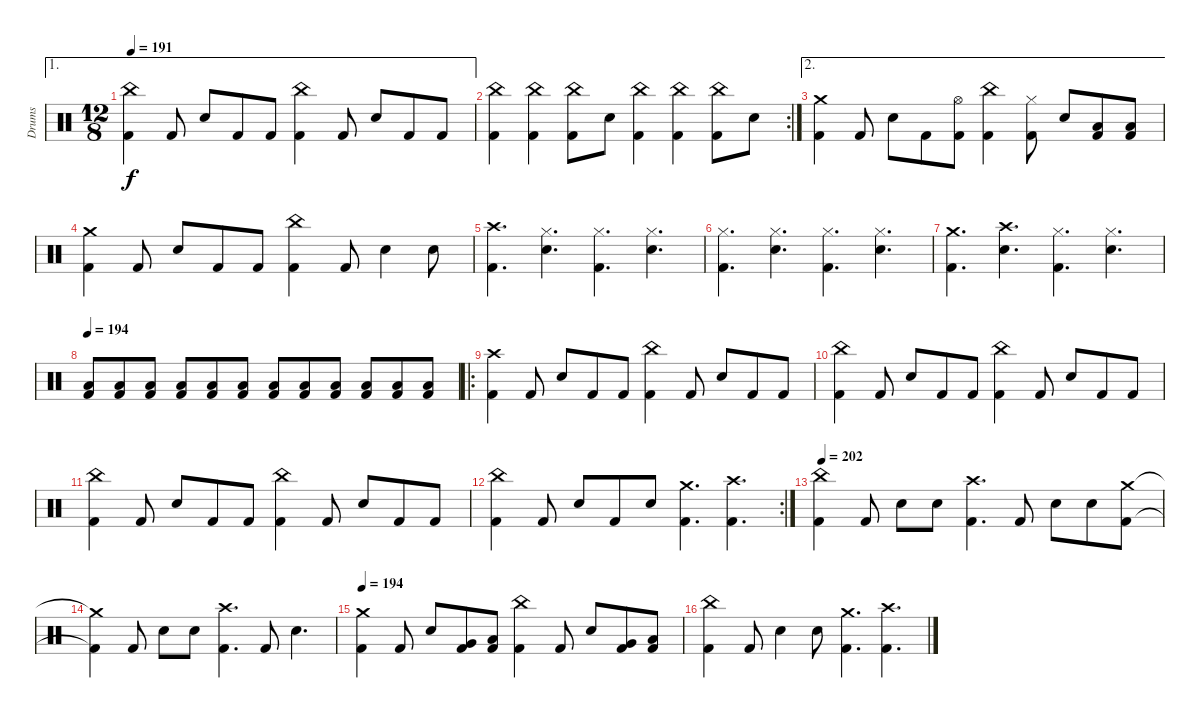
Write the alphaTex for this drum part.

\track ("Drums" "Drums") {instrument percussion}
\staff {score}
\articulation defaults
\ae 1
\ts (12 8)
\tempo 191
\clef neutral
\ks c
("China (hit)" "Kick (hit) 2").4{dy f} "Kick (hit) 2".8 "Electric Snare (hit)".8 "Kick (hit) 2".8 "Kick (hit) 2".8 ("China (hit)" "Kick (hit) 2").4 "Kick (hit) 2".8 "Electric Snare (hit)".8 "Kick (hit) 2".8 "Kick (hit) 2".8 |
\rc 2
("China (hit)" "Kick (hit) 2").4 ("China (hit)" "Kick (hit) 2").4 ("China (hit)" "Kick (hit) 2").8 "Electric Snare (hit)".8 ("China (hit)" "Kick (hit) 2").4 ("China (hit)" "Kick (hit) 2").4 ("China (hit)" "Kick (hit) 2").8 "Electric Snare (hit)".8 |
\ae 2
("Crash medium (hit)" "Kick (hit) 2").4 "Kick (hit) 2".8 "Electric Snare (hit)".8 "Kick (hit) 2".8 ("Hi-Hat (open)" "Kick (hit) 2").8 ("China (hit)" "Kick (hit) 2").4 ("Hi-Hat (closed)" "Kick (hit) 2").8 "Electric Snare (hit)".8 ("Low Tom (hit)" "Kick (hit) 2").8 ("Low Floor Tom (hit)" "Kick (hit) 2").8 |
("Crash medium (hit)" "Kick (hit) 2").4 "Kick (hit) 2".8 "Electric Snare (hit)".8 "Kick (hit) 2".8 "Kick (hit) 2".8 ("China (hit)" "Kick (hit) 2").4 "Kick (hit) 2".8 "Electric Snare (hit)".4 "Electric Snare (hit)".8 |
("Crash high (hit)" "Kick (hit) 2").4{d} ("Hi-Hat (closed)" "Electric Snare (hit)").4{d} ("Hi-Hat (closed)" "Kick (hit) 2").4{d} ("Hi-Hat (closed)" "Electric Snare (hit)").4{d} |
("Hi-Hat (closed)" "Kick (hit) 2").4{d} ("Hi-Hat (closed)" "Electric Snare (hit)").4{d} ("Hi-Hat (closed)" "Kick (hit) 2").4{d} ("Hi-Hat (closed)" "Electric Snare (hit)").4{d} |
("Crash medium (hit)" "Kick (hit) 2").4{d} ("Crash high (hit)" "Electric Snare (hit)").4{d} ("Hi-Hat (closed)" "Kick (hit) 2").4{d} ("Hi-Hat (closed)" "Electric Snare (hit)").4{d} |
\tempo 194
("Low Tom (hit)" "Kick (hit) 2").8 ("Low Floor Tom (hit)" "Kick (hit) 2").8 ("Low Floor Tom (hit)" "Kick (hit) 2").8 ("Low Tom (hit)" "Kick (hit) 2").8 ("Low Floor Tom (hit)" "Kick (hit) 2").8 ("Low Floor Tom (hit)" "Kick (hit) 2").8 ("Low Tom (hit)" "Kick (hit) 2").8 ("Low Floor Tom (hit)" "Kick (hit) 2").8 ("Low Floor Tom (hit)" "Kick (hit) 2").8 ("Low Tom (hit)" "Kick (hit) 2").8 ("Low Floor Tom (hit)" "Kick (hit) 2").8 ("Low Floor Tom (hit)" "Kick (hit) 2").8 |
\ro
("Crash high (hit)" "Kick (hit) 2").4 "Kick (hit) 2".8 "Electric Snare (hit)".8 "Kick (hit) 2".8 "Kick (hit) 2".8 ("China (hit)" "Kick (hit) 2").4 "Kick (hit) 2".8 "Electric Snare (hit)".8 "Kick (hit) 2".8 "Kick (hit) 2".8 |
("China (hit)" "Kick (hit) 2").4 "Kick (hit) 2".8 "Electric Snare (hit)".8 "Kick (hit) 2".8 "Kick (hit) 2".8 ("China (hit)" "Kick (hit) 2").4 "Kick (hit) 2".8 "Electric Snare (hit)".8 "Kick (hit) 2".8 "Kick (hit) 2".8 |
("China (hit)" "Kick (hit) 2").4 "Kick (hit) 2".8 "Electric Snare (hit)".8 "Kick (hit) 2".8 "Kick (hit) 2".8 ("China (hit)" "Kick (hit) 2").4 "Kick (hit) 2".8 "Electric Snare (hit)".8 "Kick (hit) 2".8 "Kick (hit) 2".8 |
\rc 2
("China (hit)" "Kick (hit) 2").4 "Kick (hit) 2".8 "Electric Snare (hit)".8 "Kick (hit) 2".8 "Electric Snare (hit)".8 ("Crash medium (hit)" "Kick (hit) 2").4{d} ("Crash high (hit)" "Kick (hit) 2").4{d} |
\tempo 202
("China (hit)" "Kick (hit) 2").4 "Kick (hit) 2".8 "Electric Snare (hit)".8 "Electric Snare (hit)".8 ("Crash high (hit)" "Kick (hit) 2").4{d} "Kick (hit) 2".8 "Electric Snare (hit)".8 "Electric Snare (hit)".8 ("Crash medium (hit)" "Kick (hit) 2").8 |
("Crash medium (hit)"{t} "Kick (hit) 2"{t}).4 "Kick (hit) 2".8 "Electric Snare (hit)".8 "Electric Snare (hit)".8 ("Crash high (hit)" "Kick (hit) 2").4{d} "Kick (hit) 2".8 "Electric Snare (hit)".4{d} |
\tempo 194
("Crash medium (hit)" "Kick (hit) 2").4 "Kick (hit) 2".8 "Electric Snare (hit)".8 ("Very Low Tom (hit)" "Kick (hit) 2").8 ("Low Floor Tom (hit)" "Kick (hit) 2").8 ("China (hit)" "Kick (hit) 2").4 "Kick (hit) 2".8 "Electric Snare (hit)".8 ("Very Low Tom (hit)" "Kick (hit) 2").8 ("Low Floor Tom (hit)" "Kick (hit) 2").8 |
("China (hit)" "Kick (hit) 2").4 "Kick (hit) 2".8 "Electric Snare (hit)".4 "Electric Snare (hit)".8 ("Crash medium (hit)" "Kick (hit) 2").4{d} ("Crash high (hit)" "Kick (hit) 2").4{d}
